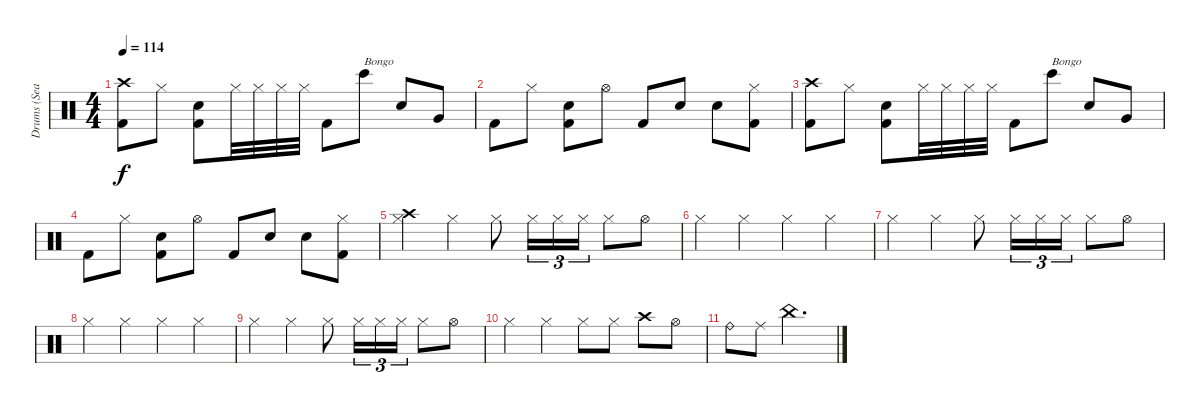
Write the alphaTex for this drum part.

\track ("Drums (Sean)" "Drums (Sea") {instrument percussion}
\staff {score}
\articulation defaults
\ts (4 4)
\tempo 114
\clef neutral
\ks c
("Crash high (hit)" "Kick (hit) 2").8{dy f} "Hi-Hat (closed)".8 ("Snare (hit) 2" "Kick (hit) 2").8 "Hi-Hat (closed)".32 "Hi-Hat (closed)".32 "Hi-Hat (closed)".32 "Hi-Hat (closed)".32 "Kick (hit) 2".8 "Bongo High (hit)".8{txt "Bongo"} "Snare (hit) 2".8 "Very Low Tom (hit)".8 |
"Kick (hit) 2".8 "Hi-Hat (closed)".8 ("Snare (hit) 2" "Kick (hit) 2").8 "Hi-Hat (open)".8 "Kick (hit) 2".8 "Snare (hit) 2".8 "Snare (hit) 2".8 ("Hi-Hat (closed)" "Kick (hit) 2").8 |
("Crash high (hit)" "Kick (hit) 2").8 "Hi-Hat (closed)".8 ("Snare (hit) 2" "Kick (hit) 2").8 "Hi-Hat (closed)".32 "Hi-Hat (closed)".32 "Hi-Hat (closed)".32 "Hi-Hat (closed)".32 "Kick (hit) 2".8 "Bongo High (hit)".8{txt "Bongo"} "Snare (hit) 2".8 "Very Low Tom (hit)".8 |
"Kick (hit) 2".8 "Hi-Hat (closed)".8 ("Snare (hit) 2" "Kick (hit) 2").8 "Hi-Hat (open)".8 "Kick (hit) 2".8 "Snare (hit) 2".8 "Snare (hit) 2".8 ("Hi-Hat (closed)" "Kick (hit) 2").8 |
("Crash high (hit)" "Hi-Hat (closed)").4 "Hi-Hat (closed)".4 "Hi-Hat (closed)".8 "Hi-Hat (closed)".16{tu (3 2)} "Hi-Hat (closed)".16{tu (3 2)} "Hi-Hat (closed)".16{tu (3 2)} "Hi-Hat (closed)".8 "Hi-Hat (open)".8 |
"Hi-Hat (closed)".4 "Hi-Hat (closed)".4 "Hi-Hat (closed)".4 "Hi-Hat (closed)".4 |
"Hi-Hat (closed)".4 "Hi-Hat (closed)".4 "Hi-Hat (closed)".8 "Hi-Hat (closed)".16{tu (3 2)} "Hi-Hat (closed)".16{tu (3 2)} "Hi-Hat (closed)".16{tu (3 2)} "Hi-Hat (closed)".8 "Hi-Hat (open)".8 |
"Hi-Hat (closed)".4 "Hi-Hat (closed)".4 "Hi-Hat (closed)".4 "Hi-Hat (closed)".4 |
"Hi-Hat (closed)".4 "Hi-Hat (closed)".4 "Hi-Hat (closed)".8 "Hi-Hat (closed)".16{tu (3 2)} "Hi-Hat (closed)".16{tu (3 2)} "Hi-Hat (closed)".16{tu (3 2)} "Hi-Hat (closed)".8 "Hi-Hat (open)".8 |
"Hi-Hat (closed)".4 "Hi-Hat (closed)".4 "Hi-Hat (closed)".8 "Hi-Hat (closed)".8 "Crash high (hit)".8 "Hi-Hat (open)".8 |
"Ride (bell)".8 "Ride (middle)".8 "China (hit)".2{d}
